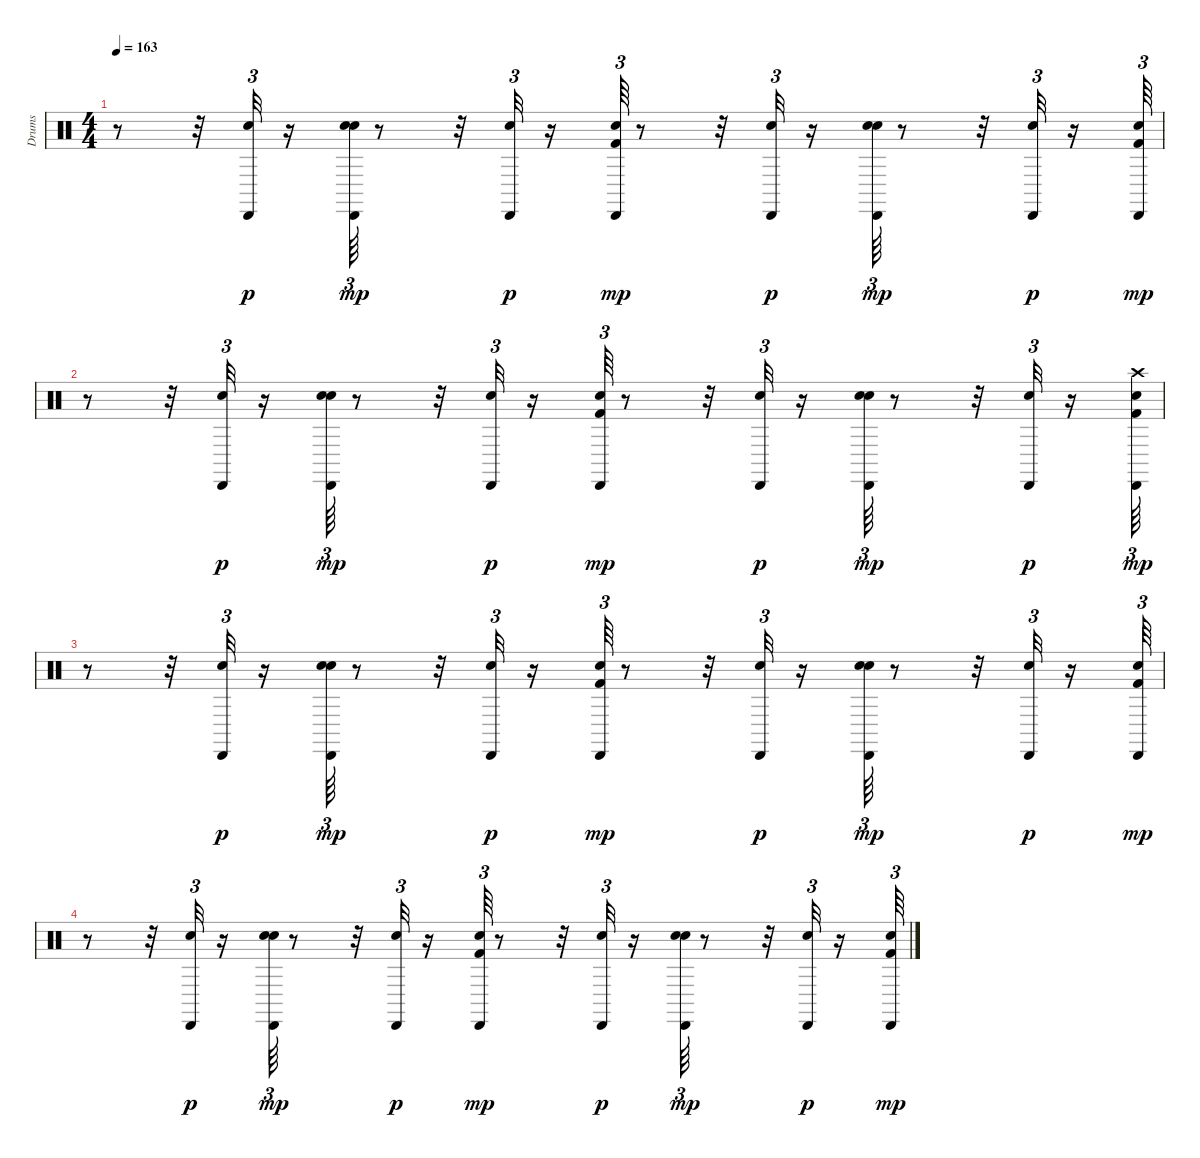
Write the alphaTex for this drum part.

\track ("Drums               " "Drums     ") {instrument percussion}
\staff {score}
\articulation defaults
\ts (4 4)
\tempo 163
\clef neutral
\ks c
r.8{dy mp} r.32 ("Snare (hit) 2" "Cabasa (hit)").32{tu (3 2) dy p} r.16 ("Snare (hit) 2" "Hand Clap (hit)" "Cabasa (hit)").64{tu (3 2) dy mp} r.8 r.32 ("Snare (hit) 2" "Cabasa (hit)").32{tu (3 2) dy p} r.16 ("Kick (hit) 2" "Snare (hit) 2" "Cabasa (hit)").64{tu (3 2) dy mp} r.8 r.32 ("Snare (hit) 2" "Cabasa (hit)").32{tu (3 2) dy p} r.16 ("Snare (hit) 2" "Hand Clap (hit)" "Cabasa (hit)").64{tu (3 2) dy mp} r.8 r.32 ("Snare (hit) 2" "Cabasa (hit)").32{tu (3 2) dy p} r.16 ("Kick (hit) 2" "Snare (hit) 2" "Cabasa (hit)").64{tu (3 2) dy mp} |
r.8 r.32 ("Snare (hit) 2" "Cabasa (hit)").32{tu (3 2) dy p} r.16 ("Snare (hit) 2" "Hand Clap (hit)" "Cabasa (hit)").64{tu (3 2) dy mp} r.8 r.32 ("Snare (hit) 2" "Cabasa (hit)").32{tu (3 2) dy p} r.16 ("Kick (hit) 2" "Snare (hit) 2" "Cabasa (hit)").64{tu (3 2) dy mp} r.8 r.32 ("Snare (hit) 2" "Cabasa (hit)").32{tu (3 2) dy p} r.16 ("Snare (hit) 2" "Hand Clap (hit)" "Cabasa (hit)").64{tu (3 2) dy mp} r.8 r.32 ("Snare (hit) 2" "Cabasa (hit)").32{tu (3 2) dy p} r.16 ("Kick (hit) 2" "Snare (hit) 2" "Crash high (hit)" "Cabasa (hit)").64{tu (3 2) dy mp} |
r.8 r.32 ("Snare (hit) 2" "Cabasa (hit)").32{tu (3 2) dy p} r.16 ("Snare (hit) 2" "Hand Clap (hit)" "Cabasa (hit)").64{tu (3 2) dy mp} r.8 r.32 ("Snare (hit) 2" "Cabasa (hit)").32{tu (3 2) dy p} r.16 ("Kick (hit) 2" "Snare (hit) 2" "Cabasa (hit)").64{tu (3 2) dy mp} r.8 r.32 ("Snare (hit) 2" "Cabasa (hit)").32{tu (3 2) dy p} r.16 ("Snare (hit) 2" "Hand Clap (hit)" "Cabasa (hit)").64{tu (3 2) dy mp} r.8 r.32 ("Snare (hit) 2" "Cabasa (hit)").32{tu (3 2) dy p} r.16 ("Kick (hit) 2" "Snare (hit) 2" "Cabasa (hit)").64{tu (3 2) dy mp} |
r.8 r.32 ("Snare (hit) 2" "Cabasa (hit)").32{tu (3 2) dy p} r.16 ("Snare (hit) 2" "Hand Clap (hit)" "Cabasa (hit)").64{tu (3 2) dy mp} r.8 r.32 ("Snare (hit) 2" "Cabasa (hit)").32{tu (3 2) dy p} r.16 ("Kick (hit) 2" "Snare (hit) 2" "Cabasa (hit)").64{tu (3 2) dy mp} r.8 r.32 ("Snare (hit) 2" "Cabasa (hit)").32{tu (3 2) dy p} r.16 ("Snare (hit) 2" "Hand Clap (hit)" "Cabasa (hit)").64{tu (3 2) dy mp} r.8 r.32 ("Snare (hit) 2" "Cabasa (hit)").32{tu (3 2) dy p} r.16 ("Kick (hit) 2" "Snare (hit) 2" "Cabasa (hit)").64{tu (3 2) dy mp}
